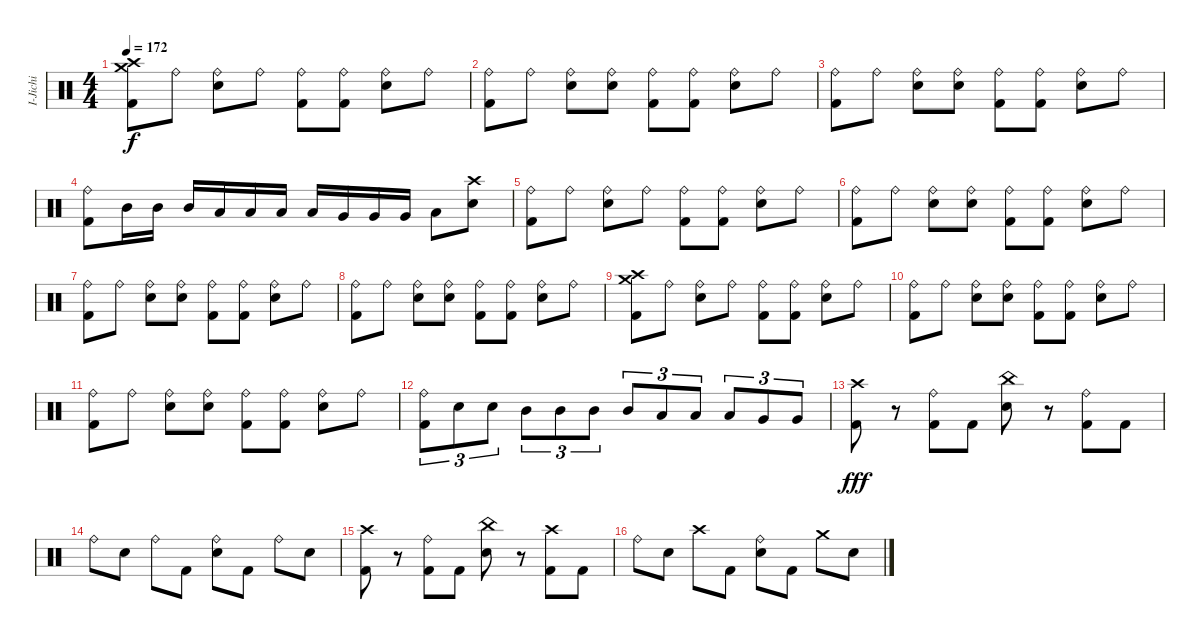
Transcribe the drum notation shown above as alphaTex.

\track ("I-Jichi" "I-Jichi") {instrument percussion}
\staff {score}
\articulation defaults
\ts (4 4)
\tempo 172
\clef neutral
\ks c
("Crash medium (hit)" "Crash high (hit)" "Kick (hit) 2").8{dy f} "Ride (bell)".8 ("Ride (bell)" "Electric Snare (hit)").8 "Ride (bell)".8 ("Ride (bell)" "Kick (hit) 2").8 ("Ride (bell)" "Kick (hit) 2").8 ("Ride (bell)" "Electric Snare (hit)").8 "Ride (bell)".8 |
("Ride (bell)" "Kick (hit) 2").8 "Ride (bell)".8 ("Ride (bell)" "Electric Snare (hit)").8 ("Ride (bell)" "Electric Snare (hit)").8 ("Ride (bell)" "Kick (hit) 2").8 ("Ride (bell)" "Kick (hit) 2").8 ("Ride (bell)" "Electric Snare (hit)").8 "Ride (bell)".8 |
("Ride (bell)" "Kick (hit) 2").8 "Ride (bell)".8 ("Ride (bell)" "Electric Snare (hit)").8 ("Ride (bell)" "Electric Snare (hit)").8 ("Ride (bell)" "Kick (hit) 2").8 ("Ride (bell)" "Kick (hit) 2").8 ("Ride (bell)" "Electric Snare (hit)").8 "Ride (bell)".8 |
("Ride (bell)" "Kick (hit) 2").8 "Mid Tom (hit)".16 "Mid Tom (hit)".16 "Mid Tom (hit)".16 "Low Tom (hit)".16 "Low Tom (hit)".16 "Low Tom (hit)".16 "Low Tom (hit)".16 "Very Low Tom (hit)".16 "Very Low Tom (hit)".16 "Very Low Tom (hit)".16 "Low Floor Tom (hit)".8 ("Crash high (hit)" "Electric Snare (hit)").8 |
("Ride (bell)" "Kick (hit) 2").8 "Ride (bell)".8 ("Ride (bell)" "Electric Snare (hit)").8 "Ride (bell)".8 ("Ride (bell)" "Kick (hit) 2").8 ("Ride (bell)" "Kick (hit) 2").8 ("Ride (bell)" "Electric Snare (hit)").8 "Ride (bell)".8 |
("Ride (bell)" "Kick (hit) 2").8 "Ride (bell)".8 ("Ride (bell)" "Electric Snare (hit)").8 ("Ride (bell)" "Electric Snare (hit)").8 ("Ride (bell)" "Kick (hit) 2").8 ("Ride (bell)" "Kick (hit) 2").8 ("Ride (bell)" "Electric Snare (hit)").8 "Ride (bell)".8 |
("Ride (bell)" "Kick (hit) 2").8 "Ride (bell)".8 ("Ride (bell)" "Electric Snare (hit)").8 ("Ride (bell)" "Electric Snare (hit)").8 ("Ride (bell)" "Kick (hit) 2").8 ("Ride (bell)" "Kick (hit) 2").8 ("Ride (bell)" "Electric Snare (hit)").8 "Ride (bell)".8 |
("Ride (bell)" "Kick (hit) 2").8 "Ride (bell)".8 ("Ride (bell)" "Electric Snare (hit)").8 ("Ride (bell)" "Electric Snare (hit)").8 ("Ride (bell)" "Kick (hit) 2").8 ("Ride (bell)" "Kick (hit) 2").8 ("Ride (bell)" "Electric Snare (hit)").8 "Ride (bell)".8 |
("Crash medium (hit)" "Crash high (hit)" "Kick (hit) 2").8 "Ride (bell)".8 ("Ride (bell)" "Electric Snare (hit)").8 "Ride (bell)".8 ("Ride (bell)" "Kick (hit) 2").8 ("Ride (bell)" "Kick (hit) 2").8 ("Ride (bell)" "Electric Snare (hit)").8 "Ride (bell)".8 |
("Ride (bell)" "Kick (hit) 2").8 "Ride (bell)".8 ("Ride (bell)" "Electric Snare (hit)").8 ("Ride (bell)" "Electric Snare (hit)").8 ("Ride (bell)" "Kick (hit) 2").8 ("Ride (bell)" "Kick (hit) 2").8 ("Ride (bell)" "Electric Snare (hit)").8 "Ride (bell)".8 |
("Ride (bell)" "Kick (hit) 2").8 "Ride (bell)".8 ("Ride (bell)" "Electric Snare (hit)").8 ("Ride (bell)" "Electric Snare (hit)").8 ("Ride (bell)" "Kick (hit) 2").8 ("Ride (bell)" "Kick (hit) 2").8 ("Ride (bell)" "Electric Snare (hit)").8 "Ride (bell)".8 |
("Ride (bell)" "Kick (hit) 2").8{tu (3 2)} "Electric Snare (hit)".8{tu (3 2)} "Electric Snare (hit)".8{tu (3 2)} "Mid Tom (hit)".8{tu (3 2)} "Mid Tom (hit)".8{tu (3 2)} "Mid Tom (hit)".8{tu (3 2)} "Mid Tom (hit)".8{tu (3 2)} "Low Tom (hit)".8{tu (3 2)} "Low Tom (hit)".8{tu (3 2)} "Low Tom (hit)".8{tu (3 2)} "Very Low Tom (hit)".8{tu (3 2)} "Very Low Tom (hit)".8{tu (3 2)} |
("Crash high (hit)" "Kick (hit) 2").8{dy fff} r.8 ("Ride (bell)" "Kick (hit) 2").8 "Kick (hit) 2".8 ("China (hit)" "Electric Snare (hit)").8 r.8 ("Ride (bell)" "Kick (hit) 2").8 "Kick (hit) 2".8 |
"Ride (bell)".8 "Electric Snare (hit)".8 "Ride (bell)".8 "Kick (hit) 2".8 ("Ride (bell)" "Electric Snare (hit)").8 "Kick (hit) 2".8 "Ride (bell)".8 "Electric Snare (hit)".8 |
("Crash high (hit)" "Kick (hit) 2").8 r.8 ("Ride (bell)" "Kick (hit) 2").8 "Kick (hit) 2".8 ("China (hit)" "Electric Snare (hit)").8 r.8 ("Crash high (hit)" "Kick (hit) 2").8 "Kick (hit) 2".8 |
"Ride (bell)".8 "Electric Snare (hit)".8 "Crash high (hit)".8 "Kick (hit) 2".8 ("Ride (bell)" "Electric Snare (hit)").8 "Kick (hit) 2".8 "Crash medium (hit)".8 "Electric Snare (hit)".8
